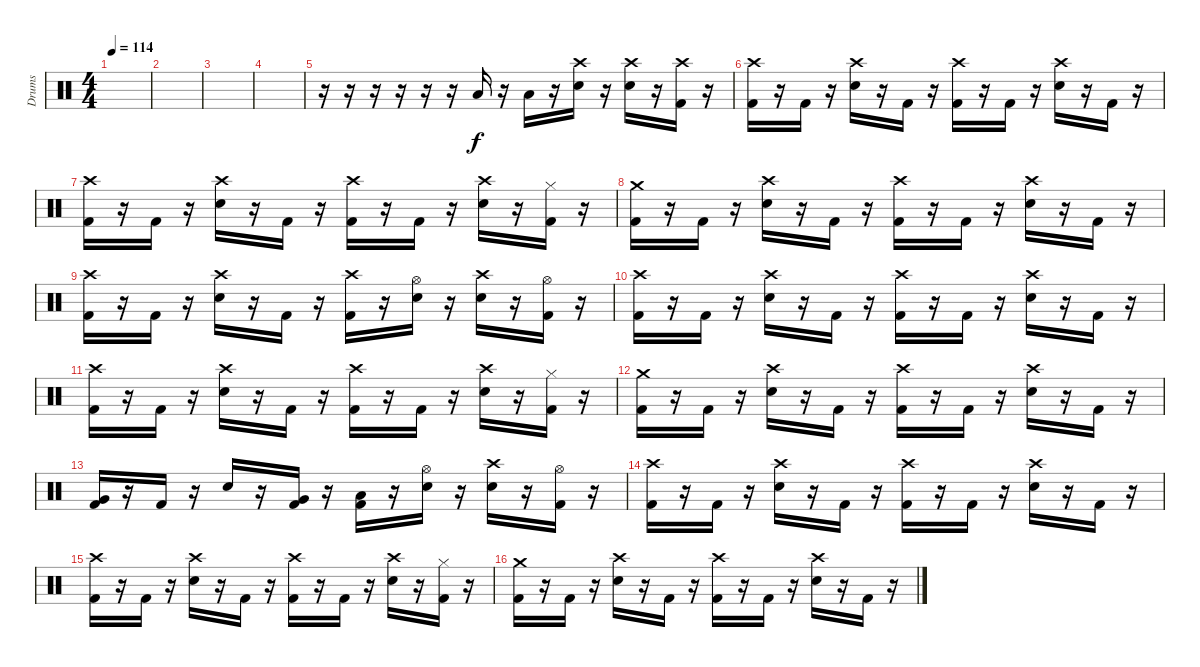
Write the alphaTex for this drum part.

\track ("Drums" "Drums") {instrument percussion}
\staff {score}
\articulation defaults
\ts (4 4)
\tempo 114
\clef neutral
\ks c
|
|
|
|
r.16 r.16 r.16 r.16 r.16 r.16 "Low Floor Tom (hit)".16 r.16 "Low Floor Tom (hit)".16 r.16 ("Crash high (hit)" "Electric Snare (hit)").16 r.16 ("Crash high (hit)" "Electric Snare (hit)").16 r.16 ("Crash high (hit)" "Kick (hit) 2").16 r.16 |
("Crash high (hit)" "Kick (hit) 2").16 r.16 "Kick (hit) 2".16 r.16 ("Crash high (hit)" "Electric Snare (hit)").16 r.16 "Kick (hit) 2".16 r.16 ("Crash high (hit)" "Kick (hit) 2").16 r.16 "Kick (hit) 2".16 r.16 ("Crash high (hit)" "Electric Snare (hit)").16 r.16 "Kick (hit) 2".16 r.16 |
("Crash high (hit)" "Kick (hit) 2").16 r.16 "Kick (hit) 2".16 r.16 ("Crash high (hit)" "Electric Snare (hit)").16 r.16 "Kick (hit) 2".16 r.16 ("Crash high (hit)" "Kick (hit) 2").16 r.16 "Kick (hit) 2".16 r.16 ("Crash high (hit)" "Electric Snare (hit)").16 r.16 ("Hi-Hat (closed)" "Kick (hit) 2").16 r.16 |
("Crash medium (hit)" "Kick (hit) 2").16 r.16 "Kick (hit) 2".16 r.16 ("Crash high (hit)" "Electric Snare (hit)").16 r.16 "Kick (hit) 2".16 r.16 ("Crash high (hit)" "Kick (hit) 2").16 r.16 "Kick (hit) 2".16 r.16 ("Crash high (hit)" "Electric Snare (hit)").16 r.16 "Kick (hit) 2".16 r.16 |
("Crash high (hit)" "Kick (hit) 2").16 r.16 "Kick (hit) 2".16 r.16 ("Crash high (hit)" "Electric Snare (hit)").16 r.16 "Kick (hit) 2".16 r.16 ("Crash high (hit)" "Kick (hit) 2").16 r.16 ("Hi-Hat (open)" "Electric Snare (hit)").16 r.16 ("Crash high (hit)" "Electric Snare (hit)").16 r.16 ("Hi-Hat (open)" "Kick (hit) 2").16 r.16 |
("Crash high (hit)" "Kick (hit) 2").16 r.16 "Kick (hit) 2".16 r.16 ("Crash high (hit)" "Electric Snare (hit)").16 r.16 "Kick (hit) 2".16 r.16 ("Crash high (hit)" "Kick (hit) 2").16 r.16 "Kick (hit) 2".16 r.16 ("Crash high (hit)" "Electric Snare (hit)").16 r.16 "Kick (hit) 2".16 r.16 |
("Crash high (hit)" "Kick (hit) 2").16 r.16 "Kick (hit) 2".16 r.16 ("Crash high (hit)" "Electric Snare (hit)").16 r.16 "Kick (hit) 2".16 r.16 ("Crash high (hit)" "Kick (hit) 2").16 r.16 "Kick (hit) 2".16 r.16 ("Crash high (hit)" "Electric Snare (hit)").16 r.16 ("Hi-Hat (closed)" "Kick (hit) 2").16 r.16 |
("Crash medium (hit)" "Kick (hit) 2").16 r.16 "Kick (hit) 2".16 r.16 ("Crash high (hit)" "Electric Snare (hit)").16 r.16 "Kick (hit) 2".16 r.16 ("Crash high (hit)" "Kick (hit) 2").16 r.16 "Kick (hit) 2".16 r.16 ("Crash high (hit)" "Electric Snare (hit)").16 r.16 "Kick (hit) 2".16 r.16 |
("Very Low Tom (hit)" "Kick (hit) 2").16 r.16 "Kick (hit) 2".16 r.16 "Electric Snare (hit)".16 r.16 ("Very Low Tom (hit)" "Kick (hit) 2").16 r.16 ("Low Floor Tom (hit)" "Kick (hit) 2").16 r.16 ("Hi-Hat (open)" "Electric Snare (hit)").16 r.16 ("Crash high (hit)" "Electric Snare (hit)").16 r.16 ("Hi-Hat (open)" "Kick (hit) 2").16 r.16 |
("Crash high (hit)" "Kick (hit) 2").16 r.16 "Kick (hit) 2".16 r.16 ("Crash high (hit)" "Electric Snare (hit)").16 r.16 "Kick (hit) 2".16 r.16 ("Crash high (hit)" "Kick (hit) 2").16 r.16 "Kick (hit) 2".16 r.16 ("Crash high (hit)" "Electric Snare (hit)").16 r.16 "Kick (hit) 2".16 r.16 |
("Crash high (hit)" "Kick (hit) 2").16 r.16 "Kick (hit) 2".16 r.16 ("Crash high (hit)" "Electric Snare (hit)").16 r.16 "Kick (hit) 2".16 r.16 ("Crash high (hit)" "Kick (hit) 2").16 r.16 "Kick (hit) 2".16 r.16 ("Crash high (hit)" "Electric Snare (hit)").16 r.16 ("Hi-Hat (closed)" "Kick (hit) 2").16 r.16 |
("Crash medium (hit)" "Kick (hit) 2").16 r.16 "Kick (hit) 2".16 r.16 ("Crash high (hit)" "Electric Snare (hit)").16 r.16 "Kick (hit) 2".16 r.16 ("Crash high (hit)" "Kick (hit) 2").16 r.16 "Kick (hit) 2".16 r.16 ("Crash high (hit)" "Electric Snare (hit)").16 r.16 "Kick (hit) 2".16 r.16
